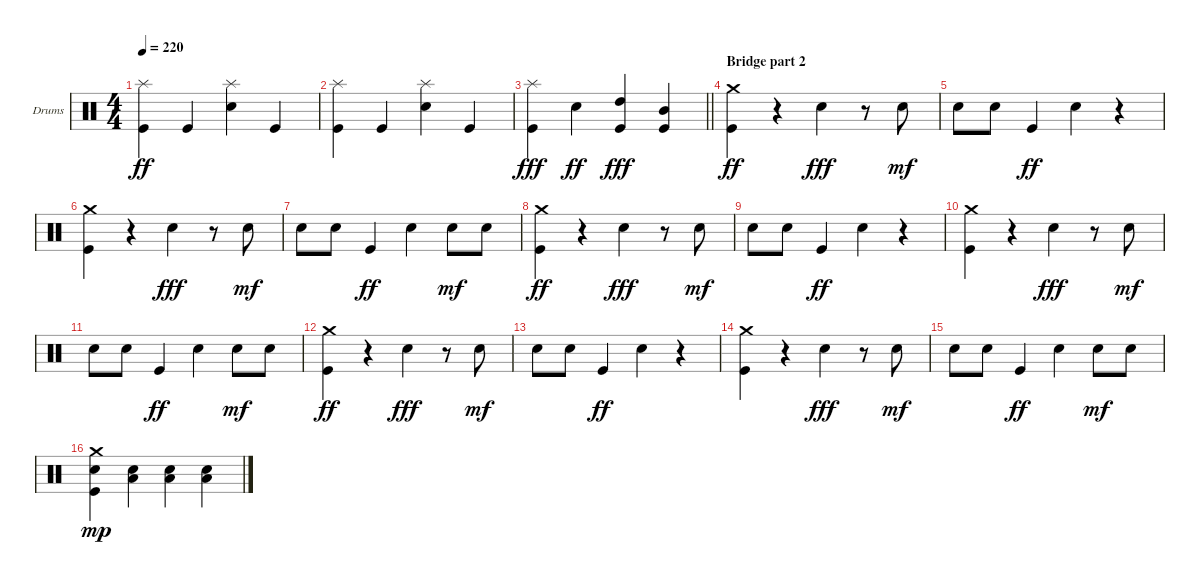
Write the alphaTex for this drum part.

\bracketExtendMode groupsimilarinstruments
\firstSystemTrackNameOrientation horizontal
\otherSystemsTrackNameOrientation horizontal
\track ("Drumkit" "Drums") {instrument percussion}
\staff {score}
\articulation defaults
\ts (4 4)
\tempo 220
\clef neutral
\ks c
("Splash (hit)" "Kick (hit)").4{dy ff} "Kick (hit)".4 ("Splash (hit)" "Snare (hit) 2").4 "Kick (hit)".4 |
("Splash (hit)" "Kick (hit)").4 "Kick (hit)".4 ("Splash (hit)" "Snare (hit) 2").4 "Kick (hit)".4 |
\barLineRight lightlight
("Splash (hit)" "Kick (hit)").4{dy fff} "Snare (hit) 2".4{dy ff} ("High Tom (hit)" "Kick (hit)").4{dy fff} ("Mid Tom (hit)" "Kick (hit)").4 |
\section ("" "Bridge part 2")
("Crash medium (hit)" "Kick (hit)").4{dy ff} r.4 "Snare (hit) 2".4{dy fff} r.8 "Snare (hit) 2".8{dy mf} |
"Snare (hit) 2".8 "Snare (hit) 2".8 "Kick (hit)".4{dy ff} "Snare (hit) 2".4 r.4 |
("Crash medium (hit)" "Kick (hit)").4 r.4 "Snare (hit) 2".4{dy fff} r.8 "Snare (hit) 2".8{dy mf} |
"Snare (hit) 2".8 "Snare (hit) 2".8 "Kick (hit)".4{dy ff} "Snare (hit) 2".4 "Snare (hit) 2".8{dy mf} "Snare (hit) 2".8 |
("Crash medium (hit)" "Kick (hit)").4{dy ff} r.4 "Snare (hit) 2".4{dy fff} r.8 "Snare (hit) 2".8{dy mf} |
"Snare (hit) 2".8 "Snare (hit) 2".8 "Kick (hit)".4{dy ff} "Snare (hit) 2".4 r.4 |
("Crash medium (hit)" "Kick (hit)").4 r.4 "Snare (hit) 2".4{dy fff} r.8 "Snare (hit) 2".8{dy mf} |
"Snare (hit) 2".8 "Snare (hit) 2".8 "Kick (hit)".4{dy ff} "Snare (hit) 2".4 "Snare (hit) 2".8{dy mf} "Snare (hit) 2".8 |
("Crash medium (hit)" "Kick (hit)").4{dy ff} r.4 "Snare (hit) 2".4{dy fff} r.8 "Snare (hit) 2".8{dy mf} |
"Snare (hit) 2".8 "Snare (hit) 2".8 "Kick (hit)".4{dy ff} "Snare (hit) 2".4 r.4 |
("Crash medium (hit)" "Kick (hit)").4 r.4 "Snare (hit) 2".4{dy fff} r.8 "Snare (hit) 2".8{dy mf} |
"Snare (hit) 2".8 "Snare (hit) 2".8 "Kick (hit)".4{dy ff} "Snare (hit) 2".4 "Snare (hit) 2".8{dy mf} "Snare (hit) 2".8 |
("Crash medium (hit)" "Snare (hit) 2" "Kick (hit)").4{dy mp} ("Snare (hit) 2" "Low Tom (hit)").4 ("Snare (hit) 2" "Low Tom (hit)").4 ("Snare (hit) 2" "Low Tom (hit)").4
